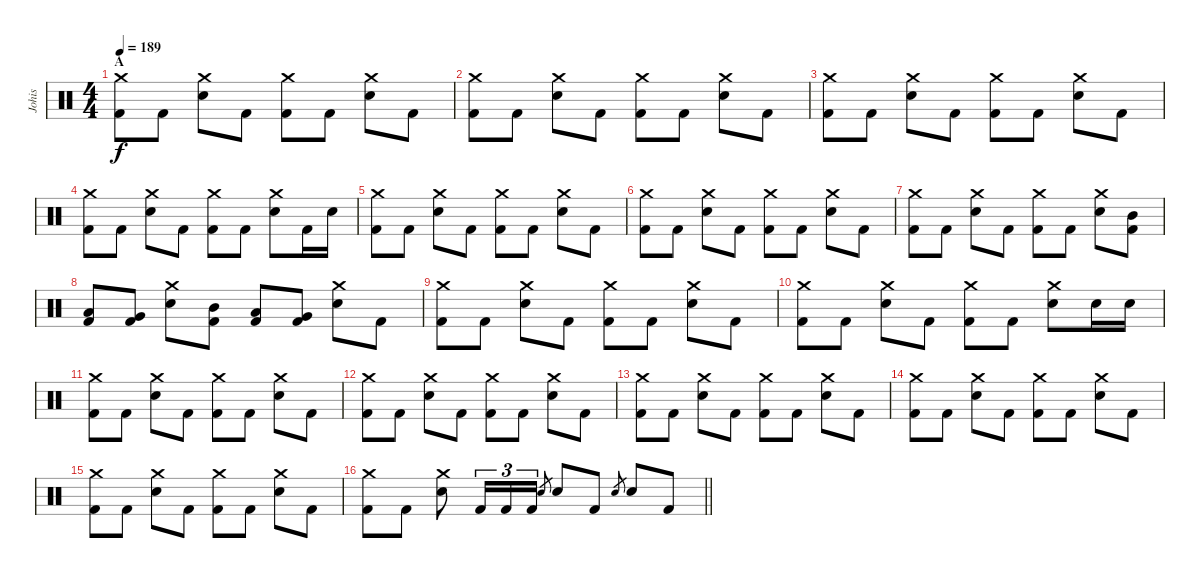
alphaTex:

\track ("Johis" "Johis") {instrument percussion}
\staff {score}
\articulation defaults
\ts (4 4)
\section ("" "A")
\tempo 189
\clef neutral
\ks c
("Crash medium (hit)" "Kick (hit) 2").8{dy f} "Kick (hit) 2".8 ("Crash medium (hit)" "Electric Snare (hit)").8 "Kick (hit) 2".8 ("Crash medium (hit)" "Kick (hit) 2").8 "Kick (hit) 2".8 ("Crash medium (hit)" "Electric Snare (hit)").8 "Kick (hit) 2".8 |
("Crash medium (hit)" "Kick (hit) 2").8 "Kick (hit) 2".8 ("Crash medium (hit)" "Electric Snare (hit)").8 "Kick (hit) 2".8 ("Crash medium (hit)" "Kick (hit) 2").8 "Kick (hit) 2".8 ("Crash medium (hit)" "Electric Snare (hit)").8 "Kick (hit) 2".8 |
("Crash medium (hit)" "Kick (hit) 2").8 "Kick (hit) 2".8 ("Crash medium (hit)" "Electric Snare (hit)").8 "Kick (hit) 2".8 ("Crash medium (hit)" "Kick (hit) 2").8 "Kick (hit) 2".8 ("Crash medium (hit)" "Electric Snare (hit)").8 "Kick (hit) 2".8 |
("Crash medium (hit)" "Kick (hit) 2").8 "Kick (hit) 2".8 ("Crash medium (hit)" "Electric Snare (hit)").8 "Kick (hit) 2".8 ("Crash medium (hit)" "Kick (hit) 2").8 "Kick (hit) 2".8 ("Crash medium (hit)" "Electric Snare (hit)").8 "Kick (hit) 2".16 "Electric Snare (hit)".16 |
("Crash medium (hit)" "Kick (hit) 2").8 "Kick (hit) 2".8 ("Crash medium (hit)" "Electric Snare (hit)").8 "Kick (hit) 2".8 ("Crash medium (hit)" "Kick (hit) 2").8 "Kick (hit) 2".8 ("Crash medium (hit)" "Electric Snare (hit)").8 "Kick (hit) 2".8 |
("Crash medium (hit)" "Kick (hit) 2").8 "Kick (hit) 2".8 ("Crash medium (hit)" "Electric Snare (hit)").8 "Kick (hit) 2".8 ("Crash medium (hit)" "Kick (hit) 2").8 "Kick (hit) 2".8 ("Crash medium (hit)" "Electric Snare (hit)").8 "Kick (hit) 2".8 |
("Crash medium (hit)" "Kick (hit) 2").8 "Kick (hit) 2".8 ("Crash medium (hit)" "Electric Snare (hit)").8 "Kick (hit) 2".8 ("Crash medium (hit)" "Kick (hit) 2").8 "Kick (hit) 2".8 ("Crash medium (hit)" "Electric Snare (hit)").8 ("Mid Tom (hit)" "Kick (hit) 2").8 |
("Low Tom (hit)" "Kick (hit) 2").8 ("Very Low Tom (hit)" "Kick (hit) 2").8 ("Crash medium (hit)" "Electric Snare (hit)").8 ("Mid Tom (hit)" "Kick (hit) 2").8 ("Low Tom (hit)" "Kick (hit) 2").8 ("Very Low Tom (hit)" "Kick (hit) 2").8 ("Crash medium (hit)" "Electric Snare (hit)").8 "Kick (hit) 2".8 |
("Crash medium (hit)" "Kick (hit) 2").8 "Kick (hit) 2".8 ("Crash medium (hit)" "Electric Snare (hit)").8 "Kick (hit) 2".8 ("Crash medium (hit)" "Kick (hit) 2").8 "Kick (hit) 2".8 ("Crash medium (hit)" "Electric Snare (hit)").8 "Kick (hit) 2".8 |
("Crash medium (hit)" "Kick (hit) 2").8 "Kick (hit) 2".8 ("Crash medium (hit)" "Electric Snare (hit)").8 "Kick (hit) 2".8 ("Crash medium (hit)" "Kick (hit) 2").8 "Kick (hit) 2".8 ("Crash medium (hit)" "Electric Snare (hit)").8 "Electric Snare (hit)".16 "Electric Snare (hit)".16 |
("Crash medium (hit)" "Kick (hit) 2").8 "Kick (hit) 2".8 ("Crash medium (hit)" "Electric Snare (hit)").8 "Kick (hit) 2".8 ("Crash medium (hit)" "Kick (hit) 2").8 "Kick (hit) 2".8 ("Crash medium (hit)" "Electric Snare (hit)").8 "Kick (hit) 2".8 |
("Crash medium (hit)" "Kick (hit) 2").8 "Kick (hit) 2".8 ("Crash medium (hit)" "Electric Snare (hit)").8 "Kick (hit) 2".8 ("Crash medium (hit)" "Kick (hit) 2").8 "Kick (hit) 2".8 ("Crash medium (hit)" "Electric Snare (hit)").8 "Kick (hit) 2".8 |
("Crash medium (hit)" "Kick (hit) 2").8 "Kick (hit) 2".8 ("Crash medium (hit)" "Electric Snare (hit)").8 "Kick (hit) 2".8 ("Crash medium (hit)" "Kick (hit) 2").8 "Kick (hit) 2".8 ("Crash medium (hit)" "Electric Snare (hit)").8 "Kick (hit) 2".8 |
("Crash medium (hit)" "Kick (hit) 2").8 "Kick (hit) 2".8 ("Crash medium (hit)" "Electric Snare (hit)").8 "Kick (hit) 2".8 ("Crash medium (hit)" "Kick (hit) 2").8 "Kick (hit) 2".8 ("Crash medium (hit)" "Electric Snare (hit)").8 "Kick (hit) 2".8 |
("Crash medium (hit)" "Kick (hit) 2").8 "Kick (hit) 2".8 ("Crash medium (hit)" "Electric Snare (hit)").8 "Kick (hit) 2".8 ("Crash medium (hit)" "Kick (hit) 2").8 "Kick (hit) 2".8 ("Crash medium (hit)" "Electric Snare (hit)").8 "Kick (hit) 2".8 |
\barLineRight lightlight
("Crash medium (hit)" "Kick (hit) 2").8 "Kick (hit) 2".8 ("Crash medium (hit)" "Electric Snare (hit)").8 "Kick (hit) 2".16{tu (3 2)} "Kick (hit) 2".16{tu (3 2)} "Kick (hit) 2".16{tu (3 2)} "Electric Snare (hit)".8{gr} "Electric Snare (hit)".8 "Kick (hit) 2".8 "Electric Snare (hit)".8{gr} "Electric Snare (hit)".8 "Kick (hit) 2".8
